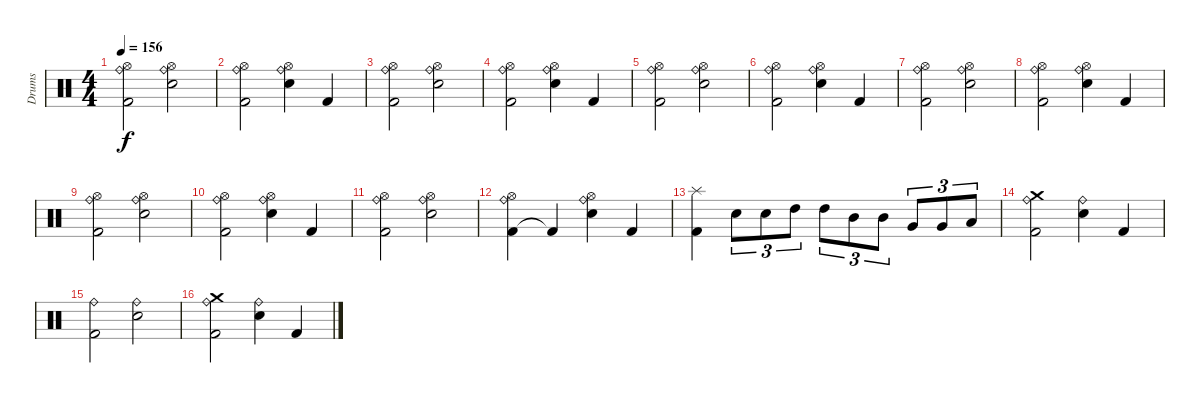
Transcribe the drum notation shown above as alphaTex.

\track ("Drums" "Drums") {instrument percussion}
\staff {score}
\articulation defaults
\ts (4 4)
\tempo 156
\clef neutral
\ks c
("Kick (hit) 2" "Ride (bell)" "Hi-Hat (open)").2{dy f} ("Electric Snare (hit)" "Ride (bell)" "Hi-Hat (open)").2 |
("Kick (hit) 2" "Ride (bell)" "Hi-Hat (open)").2 ("Electric Snare (hit)" "Ride (bell)" "Hi-Hat (open)").4 "Kick (hit) 2".4 |
("Kick (hit) 2" "Ride (bell)" "Hi-Hat (open)").2 ("Electric Snare (hit)" "Ride (bell)" "Hi-Hat (open)").2 |
("Kick (hit) 2" "Ride (bell)" "Hi-Hat (open)").2 ("Electric Snare (hit)" "Ride (bell)" "Hi-Hat (open)").4 "Kick (hit) 2".4 |
("Kick (hit) 2" "Ride (bell)" "Hi-Hat (open)").2 ("Electric Snare (hit)" "Ride (bell)" "Hi-Hat (open)").2 |
("Kick (hit) 2" "Ride (bell)" "Hi-Hat (open)").2 ("Electric Snare (hit)" "Ride (bell)" "Hi-Hat (open)").4 "Kick (hit) 2".4 |
("Kick (hit) 2" "Ride (bell)" "Hi-Hat (open)").2 ("Electric Snare (hit)" "Ride (bell)" "Hi-Hat (open)").2 |
("Kick (hit) 2" "Ride (bell)" "Hi-Hat (open)").2 ("Electric Snare (hit)" "Ride (bell)" "Hi-Hat (open)").4 "Kick (hit) 2".4 |
("Kick (hit) 2" "Ride (bell)" "Hi-Hat (open)").2 ("Electric Snare (hit)" "Ride (bell)" "Hi-Hat (open)").2 |
("Kick (hit) 2" "Ride (bell)" "Hi-Hat (open)").2 ("Electric Snare (hit)" "Ride (bell)" "Hi-Hat (open)").4 "Kick (hit) 2".4 |
("Kick (hit) 2" "Ride (bell)" "Hi-Hat (open)").2 ("Electric Snare (hit)" "Ride (bell)" "Hi-Hat (open)").2 |
("Kick (hit) 2" "Hi-Hat (open)" "Ride (bell)").4 "Kick (hit) 2"{t}.4 ("Electric Snare (hit)" "Hi-Hat (open)" "Ride (bell)").4 "Kick (hit) 2".4 |
("Kick (hit) 2" "Splash (hit)").4 "Electric Snare (hit)".8{tu (3 2)} "Electric Snare (hit)".8{tu (3 2)} "High Tom (hit)".8{tu (3 2)} "High Tom (hit)".8{tu (3 2)} "Mid Tom (hit)".8{tu (3 2)} "Mid Tom (hit)".8{tu (3 2)} "Very Low Tom (hit)".8{tu (3 2)} "Very Low Tom (hit)".8{tu (3 2)} "Low Floor Tom (hit)".8{tu (3 2)} |
("Kick (hit) 2" "Ride (bell)" "Crash medium (hit)").2 ("Electric Snare (hit)" "Ride (bell)").4 "Kick (hit) 2".4 |
("Kick (hit) 2" "Ride (bell)").2 ("Electric Snare (hit)" "Ride (bell)").2 |
("Kick (hit) 2" "Ride (bell)" "Crash medium (hit)").2 ("Electric Snare (hit)" "Ride (bell)").4 "Kick (hit) 2".4
